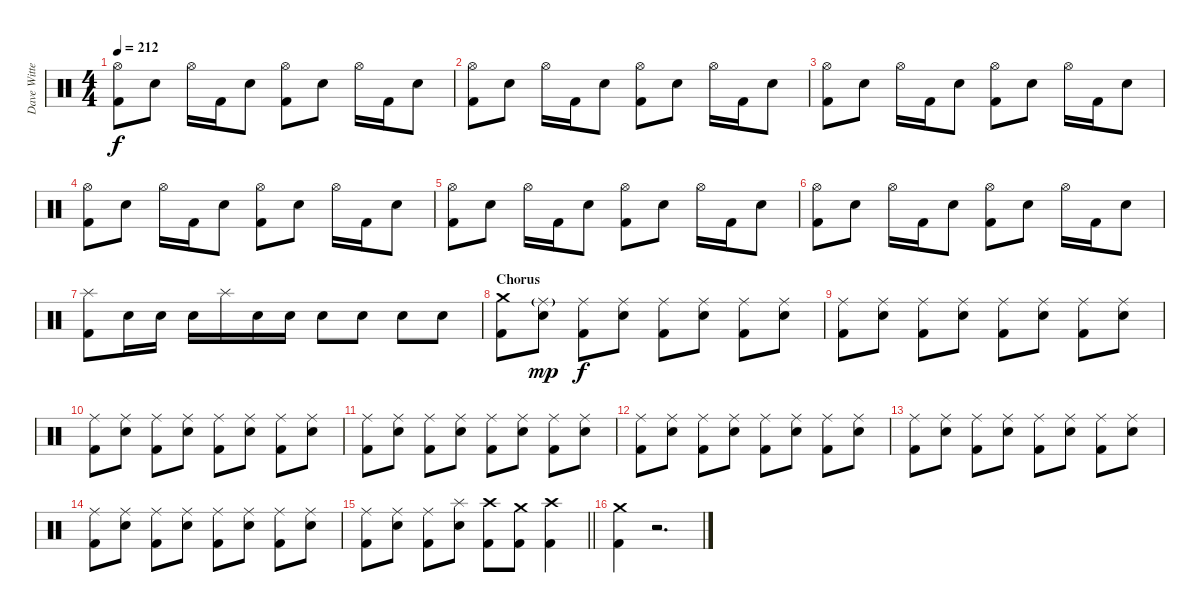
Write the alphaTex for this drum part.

\track ("Dave Witte" "Dave Witte") {instrument percussion}
\staff {score}
\articulation defaults
\ts (4 4)
\tempo 212
\clef neutral
\ks c
("Hi-Hat (open)" "Kick (hit) 2").8{dy f} "Electric Snare (hit)".8 "Hi-Hat (open)".16 "Kick (hit) 2".16 "Electric Snare (hit)".8 ("Hi-Hat (open)" "Kick (hit) 2").8 "Electric Snare (hit)".8 "Hi-Hat (open)".16 "Kick (hit) 2".16 "Electric Snare (hit)".8 |
("Hi-Hat (open)" "Kick (hit) 2").8 "Electric Snare (hit)".8 "Hi-Hat (open)".16 "Kick (hit) 2".16 "Electric Snare (hit)".8 ("Hi-Hat (open)" "Kick (hit) 2").8 "Electric Snare (hit)".8 "Hi-Hat (open)".16 "Kick (hit) 2".16 "Electric Snare (hit)".8 |
("Hi-Hat (open)" "Kick (hit) 2").8 "Electric Snare (hit)".8 "Hi-Hat (open)".16 "Kick (hit) 2".16 "Electric Snare (hit)".8 ("Hi-Hat (open)" "Kick (hit) 2").8 "Electric Snare (hit)".8 "Hi-Hat (open)".16 "Kick (hit) 2".16 "Electric Snare (hit)".8 |
("Hi-Hat (open)" "Kick (hit) 2").8 "Electric Snare (hit)".8 "Hi-Hat (open)".16 "Kick (hit) 2".16 "Electric Snare (hit)".8 ("Hi-Hat (open)" "Kick (hit) 2").8 "Electric Snare (hit)".8 "Hi-Hat (open)".16 "Kick (hit) 2".16 "Electric Snare (hit)".8 |
("Hi-Hat (open)" "Kick (hit) 2").8 "Electric Snare (hit)".8 "Hi-Hat (open)".16 "Kick (hit) 2".16 "Electric Snare (hit)".8 ("Hi-Hat (open)" "Kick (hit) 2").8 "Electric Snare (hit)".8 "Hi-Hat (open)".16 "Kick (hit) 2".16 "Electric Snare (hit)".8 |
("Hi-Hat (open)" "Kick (hit) 2").8 "Electric Snare (hit)".8 "Hi-Hat (open)".16 "Kick (hit) 2".16 "Electric Snare (hit)".8 ("Hi-Hat (open)" "Kick (hit) 2").8 "Electric Snare (hit)".8 "Hi-Hat (open)".16 "Kick (hit) 2".16 "Electric Snare (hit)".8 |
("Splash (hit)" "Kick (hit) 2").8 "Electric Snare (hit)".16 "Electric Snare (hit)".16 "Electric Snare (hit)".16 "Splash (hit)".16 "Electric Snare (hit)".16 "Electric Snare (hit)".16 "Electric Snare (hit)".8 "Electric Snare (hit)".8 "Electric Snare (hit)".8 "Electric Snare (hit)".8 |
\section ("" "Chorus")
("Crash medium (hit)" "Kick (hit) 2").8 ("Ride (middle)"{g} "Electric Snare (hit)").8{dy mp} ("Ride (middle)" "Kick (hit) 2").8{dy f} ("Ride (middle)" "Electric Snare (hit)").8 ("Ride (middle)" "Kick (hit) 2").8 ("Ride (middle)" "Electric Snare (hit)").8 ("Ride (middle)" "Kick (hit) 2").8 ("Ride (middle)" "Electric Snare (hit)").8 |
("Ride (middle)" "Kick (hit) 2").8 ("Ride (middle)" "Electric Snare (hit)").8 ("Ride (middle)" "Kick (hit) 2").8 ("Ride (middle)" "Electric Snare (hit)").8 ("Ride (middle)" "Kick (hit) 2").8 ("Ride (middle)" "Electric Snare (hit)").8 ("Ride (middle)" "Kick (hit) 2").8 ("Ride (middle)" "Electric Snare (hit)").8 |
("Ride (middle)" "Kick (hit) 2").8 ("Ride (middle)" "Electric Snare (hit)").8 ("Ride (middle)" "Kick (hit) 2").8 ("Ride (middle)" "Electric Snare (hit)").8 ("Ride (middle)" "Kick (hit) 2").8 ("Ride (middle)" "Electric Snare (hit)").8 ("Ride (middle)" "Kick (hit) 2").8 ("Ride (middle)" "Electric Snare (hit)").8 |
("Ride (middle)" "Kick (hit) 2").8 ("Ride (middle)" "Electric Snare (hit)").8 ("Ride (middle)" "Kick (hit) 2").8 ("Ride (middle)" "Electric Snare (hit)").8 ("Ride (middle)" "Kick (hit) 2").8 ("Ride (middle)" "Electric Snare (hit)").8 ("Ride (middle)" "Kick (hit) 2").8 ("Ride (middle)" "Electric Snare (hit)").8 |
("Ride (middle)" "Kick (hit) 2").8 ("Ride (middle)" "Electric Snare (hit)").8 ("Ride (middle)" "Kick (hit) 2").8 ("Ride (middle)" "Electric Snare (hit)").8 ("Ride (middle)" "Kick (hit) 2").8 ("Ride (middle)" "Electric Snare (hit)").8 ("Ride (middle)" "Kick (hit) 2").8 ("Ride (middle)" "Electric Snare (hit)").8 |
("Ride (middle)" "Kick (hit) 2").8 ("Ride (middle)" "Electric Snare (hit)").8 ("Ride (middle)" "Kick (hit) 2").8 ("Ride (middle)" "Electric Snare (hit)").8 ("Ride (middle)" "Kick (hit) 2").8 ("Ride (middle)" "Electric Snare (hit)").8 ("Ride (middle)" "Kick (hit) 2").8 ("Ride (middle)" "Electric Snare (hit)").8 |
("Ride (middle)" "Kick (hit) 2").8 ("Ride (middle)" "Electric Snare (hit)").8 ("Ride (middle)" "Kick (hit) 2").8 ("Ride (middle)" "Electric Snare (hit)").8 ("Ride (middle)" "Kick (hit) 2").8 ("Ride (middle)" "Electric Snare (hit)").8 ("Ride (middle)" "Kick (hit) 2").8 ("Ride (middle)" "Electric Snare (hit)").8 |
\barLineRight lightlight
("Ride (middle)" "Kick (hit) 2").8 ("Ride (middle)" "Electric Snare (hit)").8 ("Ride (middle)" "Kick (hit) 2").8 ("Splash (hit)" "Electric Snare (hit)").8 ("Crash high (hit)" "Kick (hit) 2").8 ("Crash medium (hit)" "Kick (hit) 2").8 ("Crash high (hit)" "Kick (hit) 2").4 |
("Crash medium (hit)" "Kick (hit) 2").4 r.2{d volume 6}
